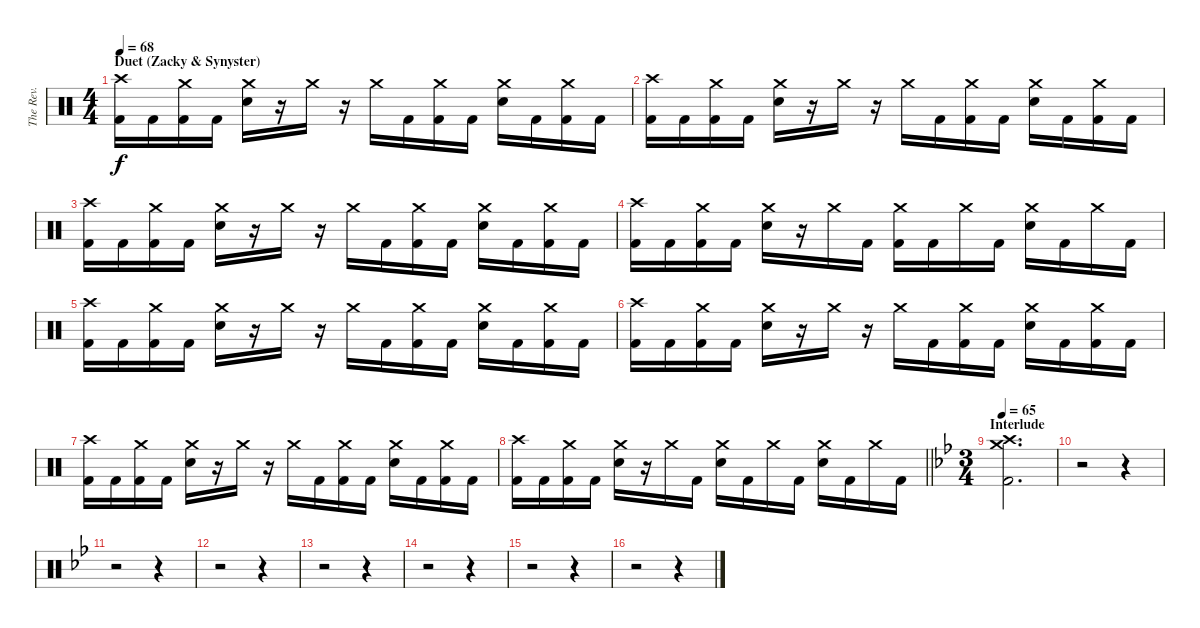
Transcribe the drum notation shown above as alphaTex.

\track ("The Rev." "The Rev.") {instrument percussion}
\staff {score}
\articulation defaults
\ts (4 4)
\section ("" "Duet (Zacky & Synyster)")
\tempo 68
\clef neutral
\ks c
("Crash high (hit)" "Kick (hit) 2").16{dy f} "Kick (hit) 2".16 ("Crash medium (hit)" "Kick (hit) 2").16 "Kick (hit) 2".16 ("Crash medium (hit)" "Electric Snare (hit)").16 r.16 "Crash medium (hit)".16 r.16 "Crash medium (hit)".16 "Kick (hit) 2".16 ("Crash medium (hit)" "Kick (hit) 2").16 "Kick (hit) 2".16 ("Crash medium (hit)" "Electric Snare (hit)").16 "Kick (hit) 2".16 ("Crash medium (hit)" "Kick (hit) 2").16 "Kick (hit) 2".16 |
("Crash high (hit)" "Kick (hit) 2").16 "Kick (hit) 2".16 ("Crash medium (hit)" "Kick (hit) 2").16 "Kick (hit) 2".16 ("Crash medium (hit)" "Electric Snare (hit)").16 r.16 "Crash medium (hit)".16 r.16 "Crash medium (hit)".16 "Kick (hit) 2".16 ("Crash medium (hit)" "Kick (hit) 2").16 "Kick (hit) 2".16 ("Crash medium (hit)" "Electric Snare (hit)").16 "Kick (hit) 2".16 ("Crash medium (hit)" "Kick (hit) 2").16 "Kick (hit) 2".16 |
("Crash high (hit)" "Kick (hit) 2").16 "Kick (hit) 2".16 ("Crash medium (hit)" "Kick (hit) 2").16 "Kick (hit) 2".16 ("Crash medium (hit)" "Electric Snare (hit)").16 r.16 "Crash medium (hit)".16 r.16 "Crash medium (hit)".16 "Kick (hit) 2".16 ("Crash medium (hit)" "Kick (hit) 2").16 "Kick (hit) 2".16 ("Crash medium (hit)" "Electric Snare (hit)").16 "Kick (hit) 2".16 ("Crash medium (hit)" "Kick (hit) 2").16 "Kick (hit) 2".16 |
("Crash high (hit)" "Kick (hit) 2").16 "Kick (hit) 2".16 ("Crash medium (hit)" "Kick (hit) 2").16 "Kick (hit) 2".16 ("Crash medium (hit)" "Electric Snare (hit)").16 r.16 "Crash medium (hit)".16 "Kick (hit) 2".16 ("Crash medium (hit)" "Kick (hit) 2").16 "Kick (hit) 2".16 "Crash medium (hit)".16 "Kick (hit) 2".16 ("Crash medium (hit)" "Electric Snare (hit)").16 "Kick (hit) 2".16 "Crash medium (hit)".16 "Kick (hit) 2".16 |
("Crash high (hit)" "Kick (hit) 2").16 "Kick (hit) 2".16 ("Crash medium (hit)" "Kick (hit) 2").16 "Kick (hit) 2".16 ("Crash medium (hit)" "Electric Snare (hit)").16 r.16 "Crash medium (hit)".16 r.16 "Crash medium (hit)".16 "Kick (hit) 2".16 ("Crash medium (hit)" "Kick (hit) 2").16 "Kick (hit) 2".16 ("Crash medium (hit)" "Electric Snare (hit)").16 "Kick (hit) 2".16 ("Crash medium (hit)" "Kick (hit) 2").16 "Kick (hit) 2".16 |
("Crash high (hit)" "Kick (hit) 2").16 "Kick (hit) 2".16 ("Crash medium (hit)" "Kick (hit) 2").16 "Kick (hit) 2".16 ("Crash medium (hit)" "Electric Snare (hit)").16 r.16 "Crash medium (hit)".16 r.16 "Crash medium (hit)".16 "Kick (hit) 2".16 ("Crash medium (hit)" "Kick (hit) 2").16 "Kick (hit) 2".16 ("Crash medium (hit)" "Electric Snare (hit)").16 "Kick (hit) 2".16 ("Crash medium (hit)" "Kick (hit) 2").16 "Kick (hit) 2".16 |
("Crash high (hit)" "Kick (hit) 2").16 "Kick (hit) 2".16 ("Crash medium (hit)" "Kick (hit) 2").16 "Kick (hit) 2".16 ("Crash medium (hit)" "Electric Snare (hit)").16 r.16 "Crash medium (hit)".16 r.16 "Crash medium (hit)".16 "Kick (hit) 2".16 ("Crash medium (hit)" "Kick (hit) 2").16 "Kick (hit) 2".16 ("Crash medium (hit)" "Electric Snare (hit)").16 "Kick (hit) 2".16 ("Crash medium (hit)" "Kick (hit) 2").16 "Kick (hit) 2".16 |
\barLineRight lightlight
("Crash high (hit)" "Kick (hit) 2").16 "Kick (hit) 2".16 ("Crash medium (hit)" "Kick (hit) 2").16 "Kick (hit) 2".16 ("Crash medium (hit)" "Electric Snare (hit)").16 r.16 "Crash medium (hit)".16 "Kick (hit) 2".16 ("Crash medium (hit)" "Electric Snare (hit)").16 "Kick (hit) 2".16 "Crash medium (hit)".16 "Kick (hit) 2".16 ("Crash medium (hit)" "Electric Snare (hit)").16 "Kick (hit) 2".16 "Crash medium (hit)".16 "Kick (hit) 2".16 |
\ts (3 4)
\section ("" "Interlude")
\tempo 65
\ks bb
("Crash medium (hit)" "Crash high (hit)" "Kick (hit) 2").2{d} |
r.2 r.4 |
r.2 r.4 |
r.2 r.4 |
r.2 r.4 |
r.2 r.4 |
r.2 r.4 |
r.2 r.4
